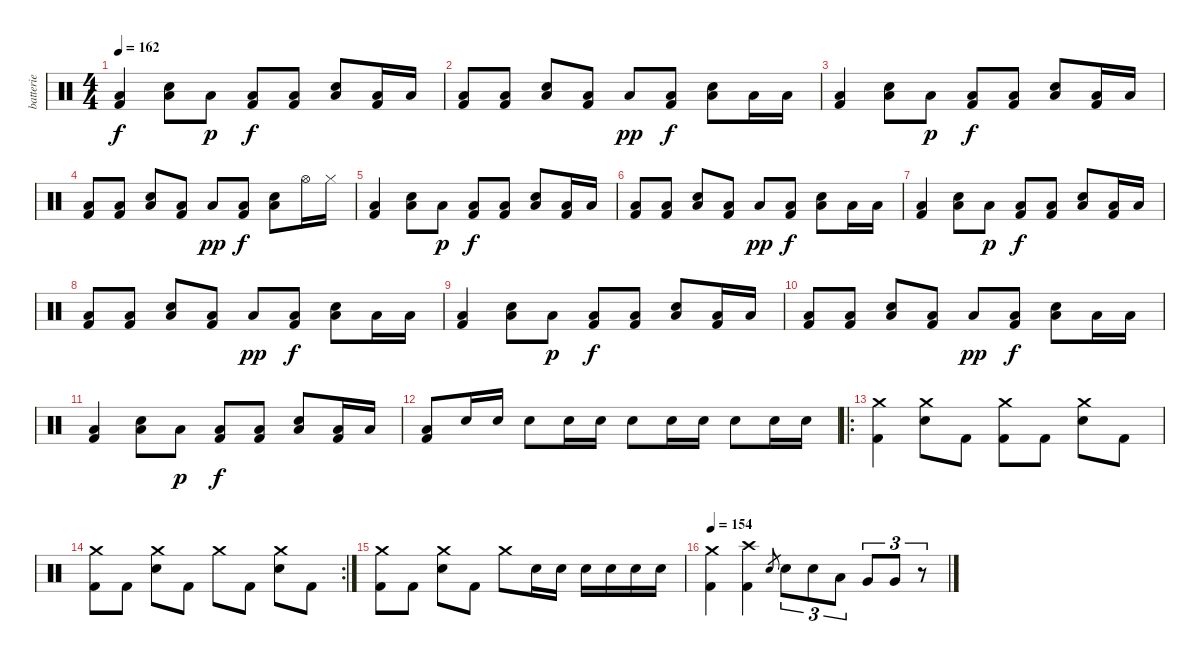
\track ("batterie" "batterie") {instrument percussion}
\staff {score}
\articulation defaults
\ts (4 4)
\tempo 162
\clef neutral
\ks c
("Low Floor Tom (hit)" "Kick (hit) 2").4{dy f} ("Low Floor Tom (hit)" "Electric Snare (hit)").8 "Low Floor Tom (hit)".8{dy p} ("Low Floor Tom (hit)" "Kick (hit) 2").8{dy f} ("Low Floor Tom (hit)" "Kick (hit) 2").8 ("Low Floor Tom (hit)" "Electric Snare (hit)").8 ("Low Floor Tom (hit)" "Kick (hit) 2").16 "Low Floor Tom (hit)".16 |
("Low Floor Tom (hit)" "Kick (hit) 2").8 ("Low Floor Tom (hit)" "Kick (hit) 2").8 ("Low Floor Tom (hit)" "Electric Snare (hit)").8 ("Low Floor Tom (hit)" "Kick (hit) 2").8 "Low Floor Tom (hit)".8{dy pp} ("Low Floor Tom (hit)" "Kick (hit) 2").8{dy f} ("Low Floor Tom (hit)" "Electric Snare (hit)").8 "Low Floor Tom (hit)".16 "Low Floor Tom (hit)".16 |
("Low Floor Tom (hit)" "Kick (hit) 2").4 ("Low Floor Tom (hit)" "Electric Snare (hit)").8 "Low Floor Tom (hit)".8{dy p} ("Low Floor Tom (hit)" "Kick (hit) 2").8{dy f} ("Low Floor Tom (hit)" "Kick (hit) 2").8 ("Low Floor Tom (hit)" "Electric Snare (hit)").8 ("Low Floor Tom (hit)" "Kick (hit) 2").16 "Low Floor Tom (hit)".16 |
("Low Floor Tom (hit)" "Kick (hit) 2").8 ("Low Floor Tom (hit)" "Kick (hit) 2").8 ("Low Floor Tom (hit)" "Electric Snare (hit)").8 ("Low Floor Tom (hit)" "Kick (hit) 2").8 "Low Floor Tom (hit)".8{dy pp} ("Low Floor Tom (hit)" "Kick (hit) 2").8{dy f} ("Low Floor Tom (hit)" "Electric Snare (hit)").8 "Hi-Hat (open)".16 "Hi-Hat (closed)".16 |
("Low Floor Tom (hit)" "Kick (hit) 2").4 ("Low Floor Tom (hit)" "Electric Snare (hit)").8 "Low Floor Tom (hit)".8{dy p} ("Low Floor Tom (hit)" "Kick (hit) 2").8{dy f} ("Low Floor Tom (hit)" "Kick (hit) 2").8 ("Low Floor Tom (hit)" "Electric Snare (hit)").8 ("Low Floor Tom (hit)" "Kick (hit) 2").16 "Low Floor Tom (hit)".16 |
("Low Floor Tom (hit)" "Kick (hit) 2").8 ("Low Floor Tom (hit)" "Kick (hit) 2").8 ("Low Floor Tom (hit)" "Electric Snare (hit)").8 ("Low Floor Tom (hit)" "Kick (hit) 2").8 "Low Floor Tom (hit)".8{dy pp} ("Low Floor Tom (hit)" "Kick (hit) 2").8{dy f} ("Low Floor Tom (hit)" "Electric Snare (hit)").8 "Low Floor Tom (hit)".16 "Low Floor Tom (hit)".16 |
("Low Floor Tom (hit)" "Kick (hit) 2").4 ("Low Floor Tom (hit)" "Electric Snare (hit)").8 "Low Floor Tom (hit)".8{dy p} ("Low Floor Tom (hit)" "Kick (hit) 2").8{dy f} ("Low Floor Tom (hit)" "Kick (hit) 2").8 ("Low Floor Tom (hit)" "Electric Snare (hit)").8 ("Low Floor Tom (hit)" "Kick (hit) 2").16 "Low Floor Tom (hit)".16 |
("Low Floor Tom (hit)" "Kick (hit) 2").8 ("Low Floor Tom (hit)" "Kick (hit) 2").8 ("Low Floor Tom (hit)" "Electric Snare (hit)").8 ("Low Floor Tom (hit)" "Kick (hit) 2").8 "Low Floor Tom (hit)".8{dy pp} ("Low Floor Tom (hit)" "Kick (hit) 2").8{dy f} ("Low Floor Tom (hit)" "Electric Snare (hit)").8 "Low Floor Tom (hit)".16 "Low Floor Tom (hit)".16 |
("Low Floor Tom (hit)" "Kick (hit) 2").4 ("Low Floor Tom (hit)" "Electric Snare (hit)").8 "Low Floor Tom (hit)".8{dy p} ("Low Floor Tom (hit)" "Kick (hit) 2").8{dy f} ("Low Floor Tom (hit)" "Kick (hit) 2").8 ("Low Floor Tom (hit)" "Electric Snare (hit)").8 ("Low Floor Tom (hit)" "Kick (hit) 2").16 "Low Floor Tom (hit)".16 |
("Low Floor Tom (hit)" "Kick (hit) 2").8 ("Low Floor Tom (hit)" "Kick (hit) 2").8 ("Low Floor Tom (hit)" "Electric Snare (hit)").8 ("Low Floor Tom (hit)" "Kick (hit) 2").8 "Low Floor Tom (hit)".8{dy pp} ("Low Floor Tom (hit)" "Kick (hit) 2").8{dy f} ("Low Floor Tom (hit)" "Electric Snare (hit)").8 "Low Floor Tom (hit)".16 "Low Floor Tom (hit)".16 |
("Low Floor Tom (hit)" "Kick (hit) 2").4 ("Low Floor Tom (hit)" "Electric Snare (hit)").8 "Low Floor Tom (hit)".8{dy p} ("Low Floor Tom (hit)" "Kick (hit) 2").8{dy f} ("Low Floor Tom (hit)" "Kick (hit) 2").8 ("Low Floor Tom (hit)" "Electric Snare (hit)").8 ("Low Floor Tom (hit)" "Kick (hit) 2").16 "Low Floor Tom (hit)".16 |
("Low Floor Tom (hit)" "Kick (hit) 2").8 "Electric Snare (hit)".16 "Electric Snare (hit)".16 "Electric Snare (hit)".8 "Electric Snare (hit)".16 "Electric Snare (hit)".16 "Electric Snare (hit)".8 "Electric Snare (hit)".16 "Electric Snare (hit)".16 "Electric Snare (hit)".8 "Electric Snare (hit)".16 "Electric Snare (hit)".16 |
\ro
("Crash medium (hit)" "Kick (hit) 2").4 ("Crash medium (hit)" "Electric Snare (hit)").8 "Kick (hit) 2".8 ("Crash medium (hit)" "Kick (hit) 2").8 "Kick (hit) 2".8 ("Crash medium (hit)" "Electric Snare (hit)").8 "Kick (hit) 2".8 |
\rc 2
("Crash medium (hit)" "Kick (hit) 2").8 "Kick (hit) 2".8 ("Crash medium (hit)" "Electric Snare (hit)").8 "Kick (hit) 2".8 "Crash medium (hit)".8 "Kick (hit) 2".8 ("Crash medium (hit)" "Electric Snare (hit)").8 "Kick (hit) 2".8 |
("Crash medium (hit)" "Kick (hit) 2").8 "Kick (hit) 2".8 ("Crash medium (hit)" "Electric Snare (hit)").8 "Kick (hit) 2".8 "Crash medium (hit)".8 "Electric Snare (hit)".16 "Electric Snare (hit)".16 "Electric Snare (hit)".16 "Electric Snare (hit)".16 "Electric Snare (hit)".16 "Electric Snare (hit)".16 |
\tempo 154
("Crash medium (hit)" "Kick (hit) 2").4 ("Crash high (hit)" "Kick (hit) 2").4 "Electric Snare (hit)".8{gr} "Electric Snare (hit)".8{tu (3 2)} "Electric Snare (hit)".8{tu (3 2)} "Low Tom (hit)".8{tu (3 2)} "Very Low Tom (hit)".8{tu (3 2)} "Very Low Tom (hit)".8{tu (3 2)} r.8{tu (3 2)}
